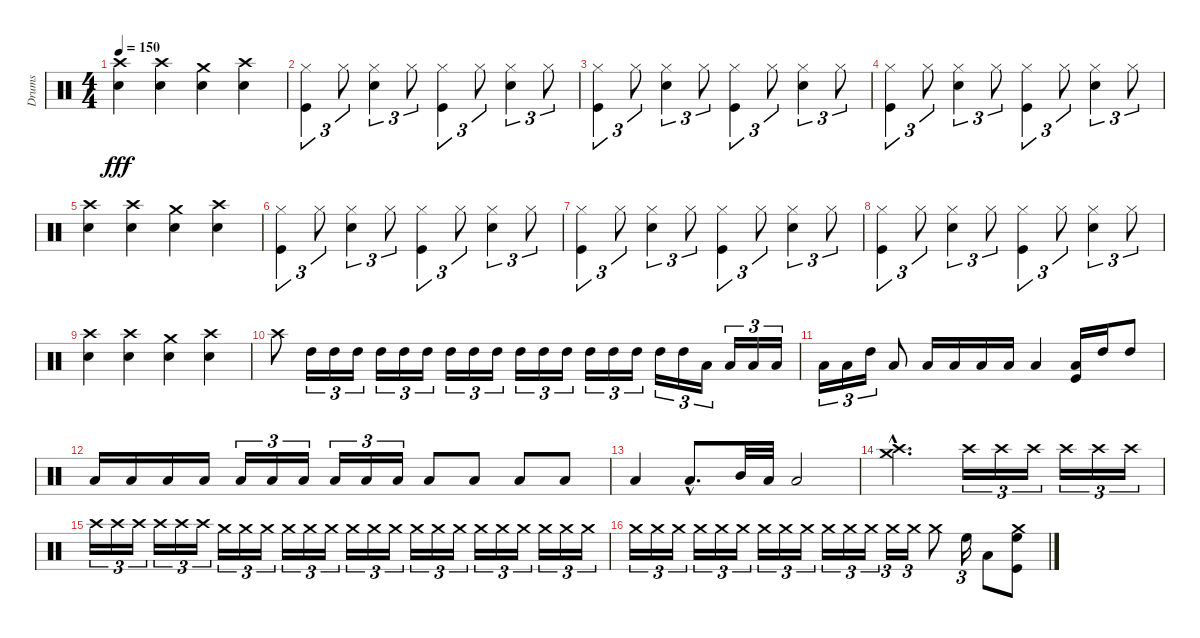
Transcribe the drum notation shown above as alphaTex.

\track ("Drums" "Drums") {instrument percussion}
\staff {score}
\articulation defaults
\ts (4 4)
\tempo 150
\clef neutral
\ks c
("Crash high (hit)" "Snare (hit) 2").4{dy fff} ("Crash high (hit)" "Snare (hit) 2").4 ("Crash medium (hit)" "Snare (hit) 2").4 ("Crash high (hit)" "Snare (hit) 2").4 |
("Hi-Hat (closed)" "Kick (hit)").4{tu (3 2)} "Hi-Hat (closed)".8{tu (3 2)} ("Hi-Hat (closed)" "Snare (hit) 2").4{tu (3 2)} "Hi-Hat (closed)".8{tu (3 2)} ("Hi-Hat (closed)" "Kick (hit)").4{tu (3 2)} "Hi-Hat (closed)".8{tu (3 2)} ("Hi-Hat (closed)" "Snare (hit) 2").4{tu (3 2)} "Hi-Hat (closed)".8{tu (3 2)} |
("Hi-Hat (closed)" "Kick (hit)").4{tu (3 2)} "Hi-Hat (closed)".8{tu (3 2)} ("Hi-Hat (closed)" "Snare (hit) 2").4{tu (3 2)} "Hi-Hat (closed)".8{tu (3 2)} ("Hi-Hat (closed)" "Kick (hit)").4{tu (3 2)} "Hi-Hat (closed)".8{tu (3 2)} ("Hi-Hat (closed)" "Snare (hit) 2").4{tu (3 2)} "Hi-Hat (closed)".8{tu (3 2)} |
("Hi-Hat (closed)" "Kick (hit)").4{tu (3 2)} "Hi-Hat (closed)".8{tu (3 2)} ("Hi-Hat (closed)" "Snare (hit) 2").4{tu (3 2)} "Hi-Hat (closed)".8{tu (3 2)} ("Hi-Hat (closed)" "Kick (hit)").4{tu (3 2)} "Hi-Hat (closed)".8{tu (3 2)} ("Hi-Hat (closed)" "Snare (hit) 2").4{tu (3 2)} "Hi-Hat (closed)".8{tu (3 2)} |
("Crash high (hit)" "Snare (hit) 2").4 ("Crash high (hit)" "Snare (hit) 2").4 ("Crash medium (hit)" "Snare (hit) 2").4 ("Crash high (hit)" "Snare (hit) 2").4 |
("Hi-Hat (closed)" "Kick (hit)").4{tu (3 2)} "Hi-Hat (closed)".8{tu (3 2)} ("Hi-Hat (closed)" "Snare (hit) 2").4{tu (3 2)} "Hi-Hat (closed)".8{tu (3 2)} ("Hi-Hat (closed)" "Kick (hit)").4{tu (3 2)} "Hi-Hat (closed)".8{tu (3 2)} ("Hi-Hat (closed)" "Snare (hit) 2").4{tu (3 2)} "Hi-Hat (closed)".8{tu (3 2)} |
("Hi-Hat (closed)" "Kick (hit)").4{tu (3 2)} "Hi-Hat (closed)".8{tu (3 2)} ("Hi-Hat (closed)" "Snare (hit) 2").4{tu (3 2)} "Hi-Hat (closed)".8{tu (3 2)} ("Hi-Hat (closed)" "Kick (hit)").4{tu (3 2)} "Hi-Hat (closed)".8{tu (3 2)} ("Hi-Hat (closed)" "Snare (hit) 2").4{tu (3 2)} "Hi-Hat (closed)".8{tu (3 2)} |
("Hi-Hat (closed)" "Kick (hit)").4{tu (3 2)} "Hi-Hat (closed)".8{tu (3 2)} ("Hi-Hat (closed)" "Snare (hit) 2").4{tu (3 2)} "Hi-Hat (closed)".8{tu (3 2)} ("Hi-Hat (closed)" "Kick (hit)").4{tu (3 2)} "Hi-Hat (closed)".8{tu (3 2)} ("Hi-Hat (closed)" "Snare (hit) 2").4{tu (3 2)} "Hi-Hat (closed)".8{tu (3 2)} |
("Crash high (hit)" "Snare (hit) 2").4 ("Crash high (hit)" "Snare (hit) 2").4 ("Crash medium (hit)" "Snare (hit) 2").4 ("Crash high (hit)" "Snare (hit) 2").4 |
"Crash high (hit)".8 "High Tom (hit)".16{tu (3 2)} "High Tom (hit)".16{tu (3 2)} "High Tom (hit)".16{tu (3 2)} "High Tom (hit)".16{tu (3 2)} "High Tom (hit)".16{tu (3 2)} "High Tom (hit)".16{tu (3 2)} "High Tom (hit)".16{tu (3 2)} "High Tom (hit)".16{tu (3 2)} "High Tom (hit)".16{tu (3 2)} "High Tom (hit)".16{tu (3 2)} "High Tom (hit)".16{tu (3 2)} "High Tom (hit)".16{tu (3 2)} "High Tom (hit)".16{tu (3 2)} "High Tom (hit)".16{tu (3 2)} "High Tom (hit)".16{tu (3 2)} "High Tom (hit)".16{tu (3 2)} "High Tom (hit)".16{tu (3 2)} "Low Tom (hit)".16{tu (3 2)} "Low Tom (hit)".16{tu (3 2)} "Low Tom (hit)".16{tu (3 2)} "Low Tom (hit)".16{tu (3 2)} |
"Low Tom (hit)".16{tu (3 2)} "Low Tom (hit)".16{tu (3 2)} "High Tom (hit)".16{tu (3 2)} "Low Tom (hit)".8 "Low Tom (hit)".16 "Low Tom (hit)".16 "Low Tom (hit)".16 "Low Tom (hit)".16 "Low Tom (hit)".4 ("Low Floor Tom (hit)" "Kick (hit)").16 "High Tom (hit)".16 "High Tom (hit)".8 |
"Low Tom (hit)".16 "Low Floor Tom (hit)".16 "Low Floor Tom (hit)".16 "Low Tom (hit)".16 "Low Tom (hit)".16{tu (3 2)} "Low Tom (hit)".16{tu (3 2)} "Low Tom (hit)".16{tu (3 2)} "Low Tom (hit)".16{tu (3 2)} "Low Tom (hit)".16{tu (3 2)} "Low Tom (hit)".16{tu (3 2)} "Low Tom (hit)".8 "Low Tom (hit)".8 "Low Tom (hit)".8 "Low Tom (hit)".8 |
"Low Floor Tom (hit)".4 "Low Tom (hit)"{hac}.8{d} "Mid Tom (hit)".32 "Low Tom (hit)".32 "Low Floor Tom (hit)".2 |
("Crash medium (hit)"{hac} "Crash high (hit)"{hac}).2{d} "Crash high (hit)".16{tu (3 2)} "Crash high (hit)".16{tu (3 2)} "Crash high (hit)".16{tu (3 2)} "Crash high (hit)".16{tu (3 2)} "Crash high (hit)".16{tu (3 2)} "Crash high (hit)".16{tu (3 2)} |
"Crash high (hit)".16{tu (3 2)} "Crash high (hit)".16{tu (3 2)} "Crash high (hit)".16{tu (3 2)} "Crash high (hit)".16{tu (3 2)} "Crash high (hit)".16{tu (3 2)} "Crash high (hit)".16{tu (3 2)} "Crash medium (hit)".16{tu (3 2)} "Crash medium (hit)".16{tu (3 2)} "Crash medium (hit)".16{tu (3 2)} "Crash medium (hit)".16{tu (3 2)} "Crash medium (hit)".16{tu (3 2)} "Crash medium (hit)".16{tu (3 2)} "Crash medium (hit)".16{tu (3 2)} "Crash medium (hit)".16{tu (3 2)} "Crash medium (hit)".16{tu (3 2)} "Crash medium (hit)".16{tu (3 2)} "Crash medium (hit)".16{tu (3 2)} "Crash medium (hit)".16{tu (3 2)} "Crash medium (hit)".16{tu (3 2)} "Crash medium (hit)".16{tu (3 2)} "Crash medium (hit)".16{tu (3 2)} "Crash medium (hit)".16{tu (3 2)} "Crash medium (hit)".16{tu (3 2)} "Crash medium (hit)".16{tu (3 2)} |
"Crash medium (hit)".16{tu (3 2)} "Crash medium (hit)".16{tu (3 2)} "Crash medium (hit)".16{tu (3 2)} "Crash medium (hit)".16{tu (3 2)} "Crash medium (hit)".16{tu (3 2)} "Crash medium (hit)".16{tu (3 2)} "Crash medium (hit)".16{tu (3 2)} "Crash medium (hit)".16{tu (3 2)} "Crash medium (hit)".16{tu (3 2)} "Crash medium (hit)".16{tu (3 2)} "Crash medium (hit)".16{tu (3 2)} "Crash medium (hit)".16{tu (3 2)} "Crash medium (hit)".16{tu (3 2)} "Crash medium (hit)".16{tu (3 2)} "Crash medium (hit)".8 "High Floor Tom (hit)".16{tu (3 2)} "Low Tom (hit)".8 ("Crash medium (hit)" "High Floor Tom (hit)" "Kick (hit)").8
